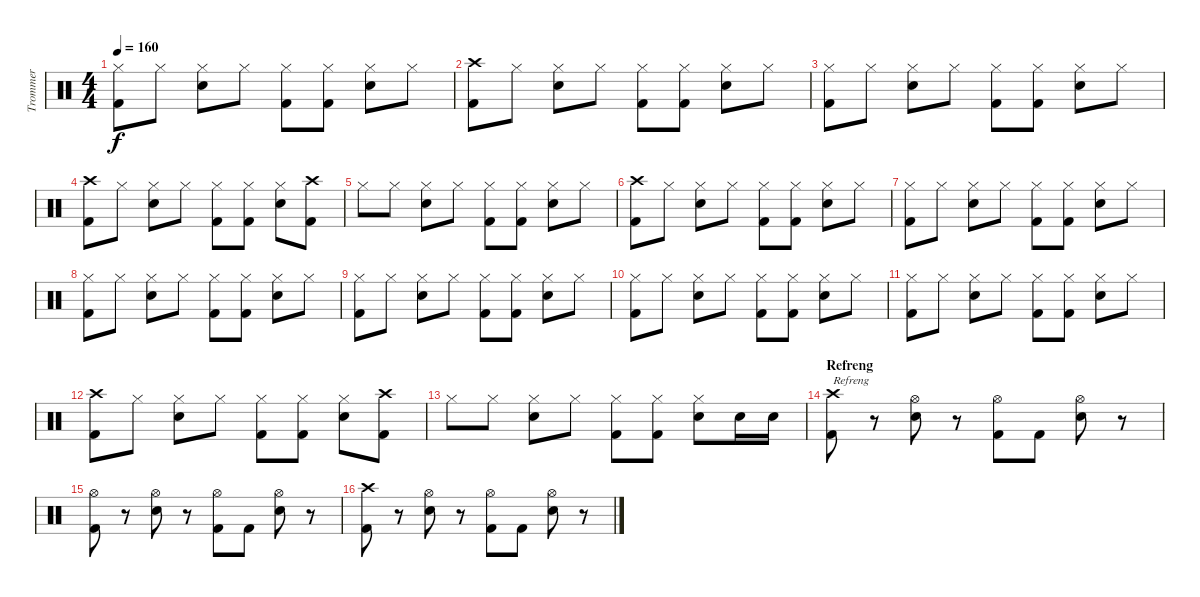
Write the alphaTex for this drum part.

\track ("Trommer" "Trommer") {instrument percussion}
\staff {score}
\articulation defaults
\ts (4 4)
\tempo 160
\clef neutral
\ks c
("Hi-Hat (closed)" "Kick (hit) 2").8{dy f} "Hi-Hat (closed)".8 ("Hi-Hat (closed)" "Electric Snare (hit)").8 "Hi-Hat (closed)".8 ("Hi-Hat (closed)" "Kick (hit) 2").8 ("Hi-Hat (closed)" "Kick (hit) 2").8 ("Hi-Hat (closed)" "Electric Snare (hit)").8 "Hi-Hat (closed)".8 |
("Crash high (hit)" "Kick (hit) 2").8 "Hi-Hat (closed)".8 ("Hi-Hat (closed)" "Electric Snare (hit)").8 "Hi-Hat (closed)".8 ("Hi-Hat (closed)" "Kick (hit) 2").8 ("Hi-Hat (closed)" "Kick (hit) 2").8 ("Hi-Hat (closed)" "Electric Snare (hit)").8 "Hi-Hat (closed)".8 |
("Hi-Hat (closed)" "Kick (hit) 2").8 "Hi-Hat (closed)".8 ("Hi-Hat (closed)" "Electric Snare (hit)").8 "Hi-Hat (closed)".8 ("Hi-Hat (closed)" "Kick (hit) 2").8 ("Hi-Hat (closed)" "Kick (hit) 2").8 ("Hi-Hat (closed)" "Electric Snare (hit)").8 "Hi-Hat (closed)".8 |
("Crash high (hit)" "Kick (hit) 2").8 "Hi-Hat (closed)".8 ("Hi-Hat (closed)" "Electric Snare (hit)").8 "Hi-Hat (closed)".8 ("Hi-Hat (closed)" "Kick (hit) 2").8 ("Hi-Hat (closed)" "Kick (hit) 2").8 ("Hi-Hat (closed)" "Electric Snare (hit)").8 ("Crash high (hit)" "Kick (hit) 2").8 |
"Hi-Hat (closed)".8 "Hi-Hat (closed)".8 ("Hi-Hat (closed)" "Electric Snare (hit)").8 "Hi-Hat (closed)".8 ("Hi-Hat (closed)" "Kick (hit) 2").8 ("Hi-Hat (closed)" "Kick (hit) 2").8 ("Hi-Hat (closed)" "Electric Snare (hit)").8 "Hi-Hat (closed)".8 |
("Crash high (hit)" "Kick (hit) 2").8 "Hi-Hat (closed)".8 ("Hi-Hat (closed)" "Electric Snare (hit)").8 "Hi-Hat (closed)".8 ("Hi-Hat (closed)" "Kick (hit) 2").8 ("Hi-Hat (closed)" "Kick (hit) 2").8 ("Hi-Hat (closed)" "Electric Snare (hit)").8 "Hi-Hat (closed)".8 |
("Hi-Hat (closed)" "Kick (hit) 2").8 "Hi-Hat (closed)".8 ("Hi-Hat (closed)" "Electric Snare (hit)").8 "Hi-Hat (closed)".8 ("Hi-Hat (closed)" "Kick (hit) 2").8 ("Hi-Hat (closed)" "Kick (hit) 2").8 ("Hi-Hat (closed)" "Electric Snare (hit)").8 "Hi-Hat (closed)".8 |
("Hi-Hat (closed)" "Kick (hit) 2").8 "Hi-Hat (closed)".8 ("Hi-Hat (closed)" "Electric Snare (hit)").8 "Hi-Hat (closed)".8 ("Hi-Hat (closed)" "Kick (hit) 2").8 ("Hi-Hat (closed)" "Kick (hit) 2").8 ("Hi-Hat (closed)" "Electric Snare (hit)").8 "Hi-Hat (closed)".8 |
("Hi-Hat (closed)" "Kick (hit) 2").8 "Hi-Hat (closed)".8 ("Hi-Hat (closed)" "Electric Snare (hit)").8 "Hi-Hat (closed)".8 ("Hi-Hat (closed)" "Kick (hit) 2").8 ("Hi-Hat (closed)" "Kick (hit) 2").8 ("Hi-Hat (closed)" "Electric Snare (hit)").8 "Hi-Hat (closed)".8 |
("Hi-Hat (closed)" "Kick (hit) 2").8 "Hi-Hat (closed)".8 ("Hi-Hat (closed)" "Electric Snare (hit)").8 "Hi-Hat (closed)".8 ("Hi-Hat (closed)" "Kick (hit) 2").8 ("Hi-Hat (closed)" "Kick (hit) 2").8 ("Hi-Hat (closed)" "Electric Snare (hit)").8 "Hi-Hat (closed)".8 |
("Hi-Hat (closed)" "Kick (hit) 2").8 "Hi-Hat (closed)".8 ("Hi-Hat (closed)" "Electric Snare (hit)").8 "Hi-Hat (closed)".8 ("Hi-Hat (closed)" "Kick (hit) 2").8 ("Hi-Hat (closed)" "Kick (hit) 2").8 ("Hi-Hat (closed)" "Electric Snare (hit)").8 "Hi-Hat (closed)".8 |
("Crash high (hit)" "Kick (hit) 2").8 "Hi-Hat (closed)".8 ("Hi-Hat (closed)" "Electric Snare (hit)").8 "Hi-Hat (closed)".8 ("Hi-Hat (closed)" "Kick (hit) 2").8 ("Hi-Hat (closed)" "Kick (hit) 2").8 ("Hi-Hat (closed)" "Electric Snare (hit)").8 ("Crash high (hit)" "Kick (hit) 2").8 |
"Hi-Hat (closed)".8 "Hi-Hat (closed)".8 ("Hi-Hat (closed)" "Electric Snare (hit)").8 "Hi-Hat (closed)".8 ("Hi-Hat (closed)" "Kick (hit) 2").8 ("Hi-Hat (closed)" "Kick (hit) 2").8 ("Hi-Hat (closed)" "Electric Snare (hit)").8 "Electric Snare (hit)".16 "Electric Snare (hit)".16 |
\section ("" "Refreng")
("Crash high (hit)" "Kick (hit) 2").8{txt "Refreng"} r.8 ("Hi-Hat (open)" "Electric Snare (hit)").8 r.8 ("Hi-Hat (open)" "Kick (hit) 2").8 "Kick (hit) 2".8 ("Hi-Hat (open)" "Electric Snare (hit)").8 r.8 |
("Hi-Hat (open)" "Kick (hit) 2").8 r.8 ("Hi-Hat (open)" "Electric Snare (hit)").8 r.8 ("Hi-Hat (open)" "Kick (hit) 2").8 "Kick (hit) 2".8 ("Hi-Hat (open)" "Electric Snare (hit)").8 r.8 |
("Crash high (hit)" "Kick (hit) 2").8 r.8 ("Hi-Hat (open)" "Electric Snare (hit)").8 r.8 ("Hi-Hat (open)" "Kick (hit) 2").8 "Kick (hit) 2".8 ("Hi-Hat (open)" "Electric Snare (hit)").8 r.8
